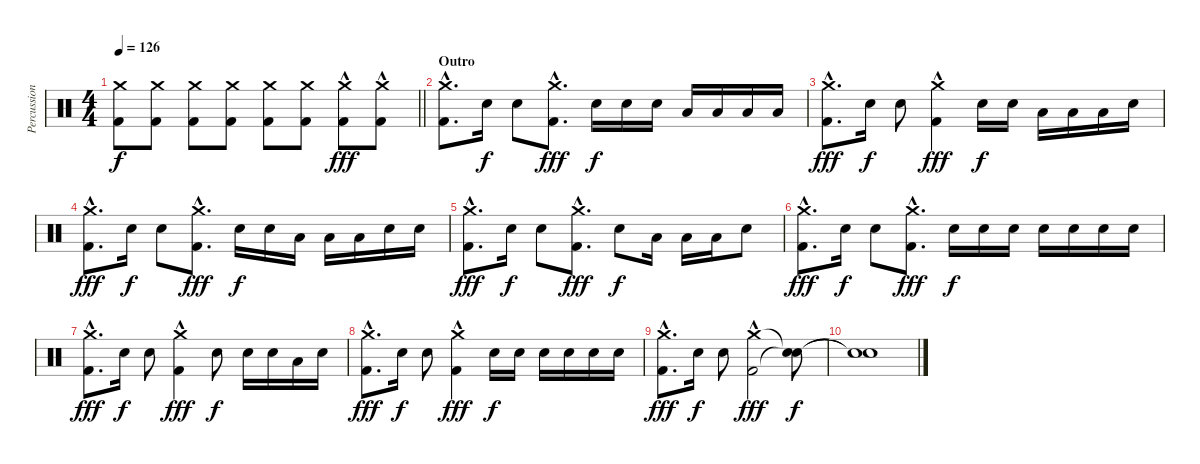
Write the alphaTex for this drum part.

\track ("Percussion" "Percussion") {instrument percussion}
\staff {score}
\articulation defaults
\ts (4 4)
\tempo 126
\clef neutral
\barLineRight lightlight
\ks c
("Crash medium (hit)" "Kick (hit) 2").8{dy f} ("Crash medium (hit)" "Kick (hit) 2").8 ("Crash medium (hit)" "Kick (hit) 2").8 ("Crash medium (hit)" "Kick (hit) 2").8 ("Crash medium (hit)" "Kick (hit) 2").8 ("Crash medium (hit)" "Kick (hit) 2").8 ("Crash medium (hit)"{hac} "Kick (hit) 2").8{dy fff} ("Crash medium (hit)"{hac} "Kick (hit) 2").8 |
\section ("" "Outro")
("Crash medium (hit)"{hac} "Kick (hit) 2").8{d} "Snare (hit) 2".16{dy f} "Snare (hit) 2".8 ("Crash medium (hit)"{hac} "Kick (hit) 2").8{d dy fff} "Snare (hit) 2".16{dy f} "Snare (hit) 2".16 "Snare (hit) 2".16 "Low Tom (hit)".16 "Low Tom (hit)".16 "Low Floor Tom (hit)".16 "Low Floor Tom (hit)".16 |
("Crash medium (hit)"{hac} "Kick (hit) 2").8{d dy fff} "Snare (hit) 2".16{dy f} "Snare (hit) 2".8 ("Crash medium (hit)"{hac} "Kick (hit) 2").4{dy fff} "Snare (hit) 2".16{dy f} "Snare (hit) 2".16 "Low Floor Tom (hit)".16 "Low Floor Tom (hit)".16 "Low Floor Tom (hit)".16 "Snare (hit) 2".16 |
("Crash medium (hit)"{hac} "Kick (hit) 2").8{d dy fff} "Snare (hit) 2".16{dy f} "Snare (hit) 2".8 ("Crash medium (hit)"{hac} "Kick (hit) 2").8{d dy fff} "Snare (hit) 2".16{dy f} "Snare (hit) 2".16 "Low Floor Tom (hit)".16 "Low Floor Tom (hit)".16 "Low Floor Tom (hit)".16 "Snare (hit) 2".16 "Snare (hit) 2".16 |
("Crash medium (hit)"{hac} "Kick (hit) 2").8{d dy fff} "Snare (hit) 2".16{dy f} "Snare (hit) 2".8 ("Crash medium (hit)"{hac} "Kick (hit) 2").8{d dy fff} "Snare (hit) 2".8{dy f} "Low Floor Tom (hit)".16 "Low Floor Tom (hit)".16 "Low Floor Tom (hit)".16 "Snare (hit) 2".8 |
("Crash medium (hit)"{hac} "Kick (hit) 2").8{d dy fff} "Snare (hit) 2".16{dy f} "Snare (hit) 2".8 ("Crash medium (hit)"{hac} "Kick (hit) 2").8{d dy fff} "Snare (hit) 2".16{dy f} "Snare (hit) 2".16 "Snare (hit) 2".16 "Snare (hit) 2".16 "Snare (hit) 2".16 "Snare (hit) 2".16 "Snare (hit) 2".16 |
("Crash medium (hit)"{hac} "Kick (hit) 2").8{d dy fff} "Snare (hit) 2".16{dy f} "Snare (hit) 2".8 ("Crash medium (hit)"{hac} "Kick (hit) 2").4{dy fff} "Snare (hit) 2".8{dy f} "Snare (hit) 2".16 "Snare (hit) 2".16 "Low Floor Tom (hit)".16 "Snare (hit) 2".16 |
("Crash medium (hit)"{hac} "Kick (hit) 2").8{d dy fff} "Snare (hit) 2".16{dy f} "Snare (hit) 2".8 ("Crash medium (hit)"{hac} "Kick (hit) 2").4{dy fff} "Snare (hit) 2".16{dy f} "Snare (hit) 2".16 "Snare (hit) 2".16 "Snare (hit) 2".16 "Snare (hit) 2".16 "Snare (hit) 2".16 |
("Crash medium (hit)"{hac} "Kick (hit) 2").8{d dy fff} "Snare (hit) 2".16{dy f} "Snare (hit) 2".8 ("Crash medium (hit)"{hac} "Kick (hit) 2").2{dy fff} ("Snare (hit)"{t} "Snare (hit)"{t}).8{dy f} |
("Snare (hit)"{t} "Snare (hit)"{t}).1
